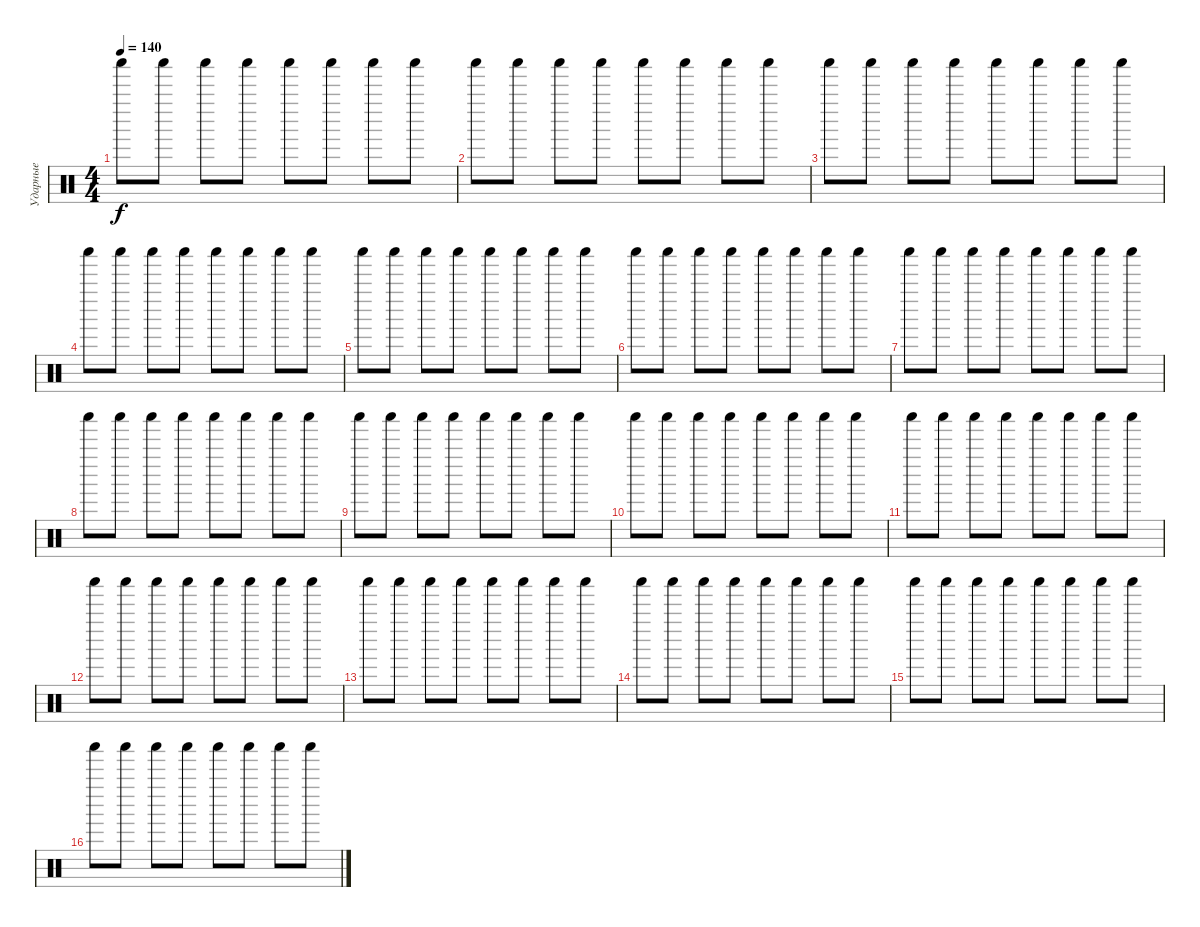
\track ("Ударные" "Ударные") {instrument percussion}
\staff {score}
\articulation defaults
\ts (4 4)
\tempo 140
\clef neutral
\ks c "Shaker (hit)".8{dy f} "Shaker (hit)".8 "Shaker (hit)".8 "Shaker (hit)".8 "Shaker (hit)".8 "Shaker (hit)".8 "Shaker (hit)".8 "Shaker (hit)".8
|
"Shaker (hit)".8 "Shaker (hit)".8 "Shaker (hit)".8 "Shaker (hit)".8 "Shaker (hit)".8 "Shaker (hit)".8 "Shaker (hit)".8 "Shaker (hit)".8 |
"Shaker (hit)".8 "Shaker (hit)".8 "Shaker (hit)".8 "Shaker (hit)".8 "Shaker (hit)".8 "Shaker (hit)".8 "Shaker (hit)".8 "Shaker (hit)".8 |
"Shaker (hit)".8 "Shaker (hit)".8 "Shaker (hit)".8 "Shaker (hit)".8 "Shaker (hit)".8 "Shaker (hit)".8 "Shaker (hit)".8 "Shaker (hit)".8 |
"Shaker (hit)".8 "Shaker (hit)".8 "Shaker (hit)".8 "Shaker (hit)".8 "Shaker (hit)".8 "Shaker (hit)".8 "Shaker (hit)".8 "Shaker (hit)".8 |
"Shaker (hit)".8 "Shaker (hit)".8 "Shaker (hit)".8 "Shaker (hit)".8 "Shaker (hit)".8 "Shaker (hit)".8 "Shaker (hit)".8 "Shaker (hit)".8 |
"Shaker (hit)".8 "Shaker (hit)".8 "Shaker (hit)".8 "Shaker (hit)".8 "Shaker (hit)".8 "Shaker (hit)".8 "Shaker (hit)".8 "Shaker (hit)".8 |
"Shaker (hit)".8 "Shaker (hit)".8 "Shaker (hit)".8 "Shaker (hit)".8 "Shaker (hit)".8 "Shaker (hit)".8 "Shaker (hit)".8 "Shaker (hit)".8 |
"Shaker (hit)".8 "Shaker (hit)".8 "Shaker (hit)".8 "Shaker (hit)".8 "Shaker (hit)".8 "Shaker (hit)".8 "Shaker (hit)".8 "Shaker (hit)".8 |
"Shaker (hit)".8 "Shaker (hit)".8 "Shaker (hit)".8 "Shaker (hit)".8 "Shaker (hit)".8 "Shaker (hit)".8 "Shaker (hit)".8 "Shaker (hit)".8 |
"Shaker (hit)".8 "Shaker (hit)".8 "Shaker (hit)".8 "Shaker (hit)".8 "Shaker (hit)".8 "Shaker (hit)".8 "Shaker (hit)".8 "Shaker (hit)".8 |
"Shaker (hit)".8 "Shaker (hit)".8 "Shaker (hit)".8 "Shaker (hit)".8 "Shaker (hit)".8 "Shaker (hit)".8 "Shaker (hit)".8 "Shaker (hit)".8 |
"Shaker (hit)".8 "Shaker (hit)".8 "Shaker (hit)".8 "Shaker (hit)".8 "Shaker (hit)".8 "Shaker (hit)".8 "Shaker (hit)".8 "Shaker (hit)".8 |
"Shaker (hit)".8 "Shaker (hit)".8 "Shaker (hit)".8 "Shaker (hit)".8 "Shaker (hit)".8 "Shaker (hit)".8 "Shaker (hit)".8 "Shaker (hit)".8 |
"Shaker (hit)".8 "Shaker (hit)".8 "Shaker (hit)".8 "Shaker (hit)".8 "Shaker (hit)".8 "Shaker (hit)".8 "Shaker (hit)".8 "Shaker (hit)".8 |
"Shaker (hit)".8 "Shaker (hit)".8 "Shaker (hit)".8 "Shaker (hit)".8 "Shaker (hit)".8 "Shaker (hit)".8 "Shaker (hit)".8 "Shaker (hit)".8
